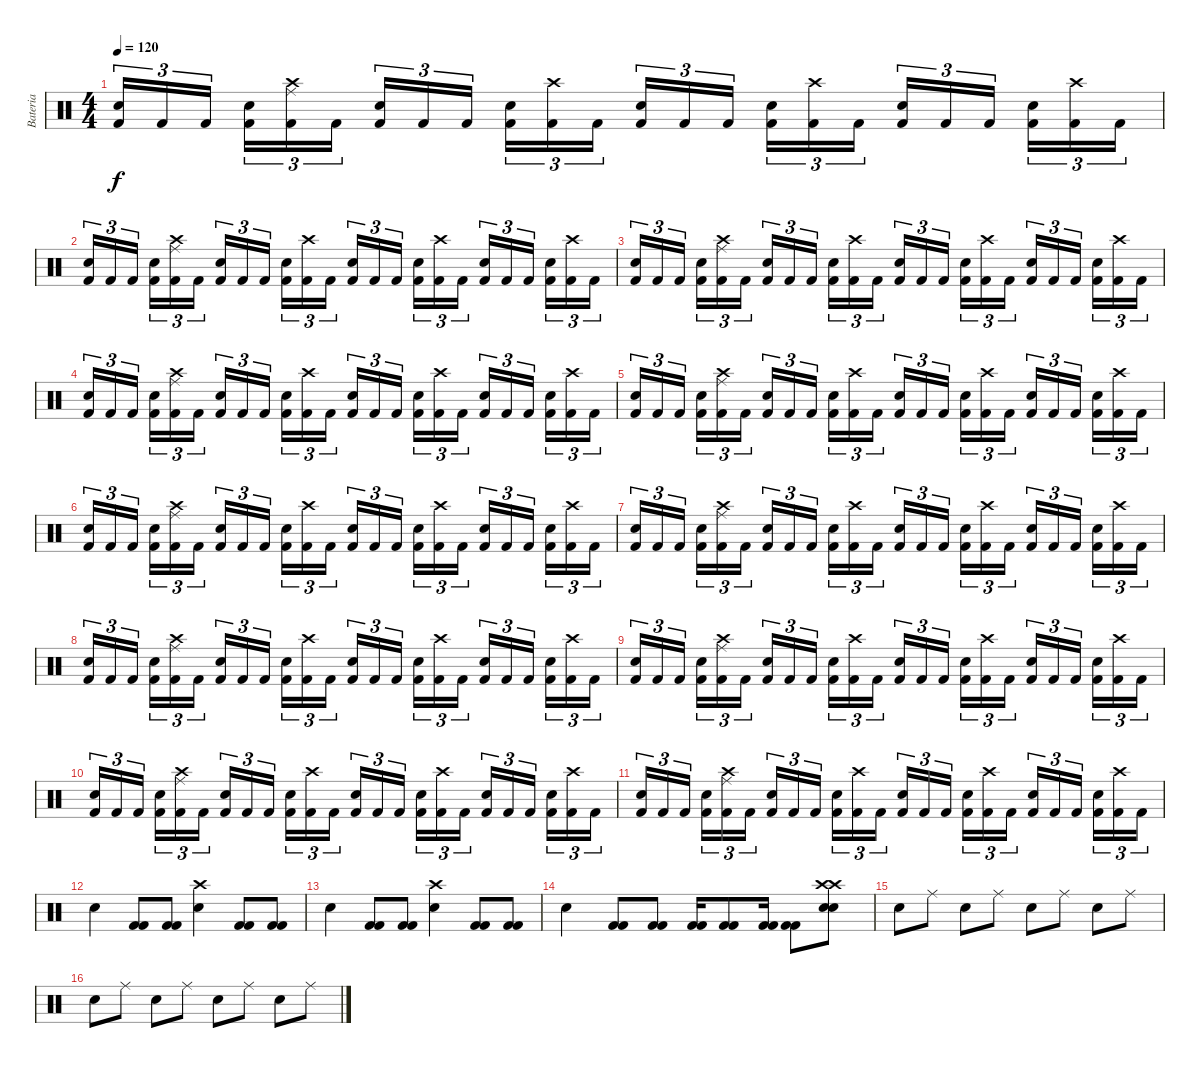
\track ("Bateria" "Bateria") {instrument percussion}
\staff {score}
\articulation defaults
\ts (4 4)
\tempo 120
\clef neutral
\ks c
("Electric Snare (hit)" "Kick (hit) 2").16{tu (3 2) dy f} "Kick (hit) 2".16{tu (3 2)} "Kick (hit) 2".16{tu (3 2)} ("Electric Snare (hit)" "Kick (hit) 2").16{tu (3 2)} ("Ride (middle)" "Kick (hit) 2" "Crash high (hit)").16{tu (3 2)} "Kick (hit) 2".16{tu (3 2)} ("Electric Snare (hit)" "Kick (hit) 2").16{tu (3 2)} "Kick (hit) 2".16{tu (3 2)} "Kick (hit) 2".16{tu (3 2)} ("Electric Snare (hit)" "Kick (hit) 2").16{tu (3 2)} ("Kick (hit) 2" "Crash high (hit)").16{tu (3 2)} "Kick (hit) 2".16{tu (3 2)} ("Electric Snare (hit)" "Kick (hit) 2").16{tu (3 2)} "Kick (hit) 2".16{tu (3 2)} "Kick (hit) 2".16{tu (3 2)} ("Electric Snare (hit)" "Kick (hit) 2").16{tu (3 2)} ("Kick (hit) 2" "Crash high (hit)").16{tu (3 2)} "Kick (hit) 2".16{tu (3 2)} ("Electric Snare (hit)" "Kick (hit) 2").16{tu (3 2)} "Kick (hit) 2".16{tu (3 2)} "Kick (hit) 2".16{tu (3 2)} ("Electric Snare (hit)" "Kick (hit) 2").16{tu (3 2)} ("Kick (hit) 2" "Crash high (hit)").16{tu (3 2)} "Kick (hit) 2".16{tu (3 2)} |
("Electric Snare (hit)" "Kick (hit) 2").16{tu (3 2)} "Kick (hit) 2".16{tu (3 2)} "Kick (hit) 2".16{tu (3 2)} ("Electric Snare (hit)" "Kick (hit) 2").16{tu (3 2)} ("Ride (middle)" "Kick (hit) 2" "Crash high (hit)").16{tu (3 2)} "Kick (hit) 2".16{tu (3 2)} ("Electric Snare (hit)" "Kick (hit) 2").16{tu (3 2)} "Kick (hit) 2".16{tu (3 2)} "Kick (hit) 2".16{tu (3 2)} ("Electric Snare (hit)" "Kick (hit) 2").16{tu (3 2)} ("Kick (hit) 2" "Crash high (hit)").16{tu (3 2)} "Kick (hit) 2".16{tu (3 2)} ("Electric Snare (hit)" "Kick (hit) 2").16{tu (3 2)} "Kick (hit) 2".16{tu (3 2)} "Kick (hit) 2".16{tu (3 2)} ("Electric Snare (hit)" "Kick (hit) 2").16{tu (3 2)} ("Kick (hit) 2" "Crash high (hit)").16{tu (3 2)} "Kick (hit) 2".16{tu (3 2)} ("Electric Snare (hit)" "Kick (hit) 2").16{tu (3 2)} "Kick (hit) 2".16{tu (3 2)} "Kick (hit) 2".16{tu (3 2)} ("Electric Snare (hit)" "Kick (hit) 2").16{tu (3 2)} ("Kick (hit) 2" "Crash high (hit)").16{tu (3 2)} "Kick (hit) 2".16{tu (3 2)} |
("Electric Snare (hit)" "Kick (hit) 2").16{tu (3 2)} "Kick (hit) 2".16{tu (3 2)} "Kick (hit) 2".16{tu (3 2)} ("Electric Snare (hit)" "Kick (hit) 2").16{tu (3 2)} ("Ride (middle)" "Kick (hit) 2" "Crash high (hit)").16{tu (3 2)} "Kick (hit) 2".16{tu (3 2)} ("Electric Snare (hit)" "Kick (hit) 2").16{tu (3 2)} "Kick (hit) 2".16{tu (3 2)} "Kick (hit) 2".16{tu (3 2)} ("Electric Snare (hit)" "Kick (hit) 2").16{tu (3 2)} ("Kick (hit) 2" "Crash high (hit)").16{tu (3 2)} "Kick (hit) 2".16{tu (3 2)} ("Electric Snare (hit)" "Kick (hit) 2").16{tu (3 2)} "Kick (hit) 2".16{tu (3 2)} "Kick (hit) 2".16{tu (3 2)} ("Electric Snare (hit)" "Kick (hit) 2").16{tu (3 2)} ("Kick (hit) 2" "Crash high (hit)").16{tu (3 2)} "Kick (hit) 2".16{tu (3 2)} ("Electric Snare (hit)" "Kick (hit) 2").16{tu (3 2)} "Kick (hit) 2".16{tu (3 2)} "Kick (hit) 2".16{tu (3 2)} ("Electric Snare (hit)" "Kick (hit) 2").16{tu (3 2)} ("Kick (hit) 2" "Crash high (hit)").16{tu (3 2)} "Kick (hit) 2".16{tu (3 2)} |
("Electric Snare (hit)" "Kick (hit) 2").16{tu (3 2)} "Kick (hit) 2".16{tu (3 2)} "Kick (hit) 2".16{tu (3 2)} ("Electric Snare (hit)" "Kick (hit) 2").16{tu (3 2)} ("Ride (middle)" "Kick (hit) 2" "Crash high (hit)").16{tu (3 2)} "Kick (hit) 2".16{tu (3 2)} ("Electric Snare (hit)" "Kick (hit) 2").16{tu (3 2)} "Kick (hit) 2".16{tu (3 2)} "Kick (hit) 2".16{tu (3 2)} ("Electric Snare (hit)" "Kick (hit) 2").16{tu (3 2)} ("Kick (hit) 2" "Crash high (hit)").16{tu (3 2)} "Kick (hit) 2".16{tu (3 2)} ("Electric Snare (hit)" "Kick (hit) 2").16{tu (3 2)} "Kick (hit) 2".16{tu (3 2)} "Kick (hit) 2".16{tu (3 2)} ("Electric Snare (hit)" "Kick (hit) 2").16{tu (3 2)} ("Kick (hit) 2" "Crash high (hit)").16{tu (3 2)} "Kick (hit) 2".16{tu (3 2)} ("Electric Snare (hit)" "Kick (hit) 2").16{tu (3 2)} "Kick (hit) 2".16{tu (3 2)} "Kick (hit) 2".16{tu (3 2)} ("Electric Snare (hit)" "Kick (hit) 2").16{tu (3 2)} ("Kick (hit) 2" "Crash high (hit)").16{tu (3 2)} "Kick (hit) 2".16{tu (3 2)} |
("Electric Snare (hit)" "Kick (hit) 2").16{tu (3 2)} "Kick (hit) 2".16{tu (3 2)} "Kick (hit) 2".16{tu (3 2)} ("Electric Snare (hit)" "Kick (hit) 2").16{tu (3 2)} ("Ride (middle)" "Kick (hit) 2" "Crash high (hit)").16{tu (3 2)} "Kick (hit) 2".16{tu (3 2)} ("Electric Snare (hit)" "Kick (hit) 2").16{tu (3 2)} "Kick (hit) 2".16{tu (3 2)} "Kick (hit) 2".16{tu (3 2)} ("Electric Snare (hit)" "Kick (hit) 2").16{tu (3 2)} ("Kick (hit) 2" "Crash high (hit)").16{tu (3 2)} "Kick (hit) 2".16{tu (3 2)} ("Electric Snare (hit)" "Kick (hit) 2").16{tu (3 2)} "Kick (hit) 2".16{tu (3 2)} "Kick (hit) 2".16{tu (3 2)} ("Electric Snare (hit)" "Kick (hit) 2").16{tu (3 2)} ("Kick (hit) 2" "Crash high (hit)").16{tu (3 2)} "Kick (hit) 2".16{tu (3 2)} ("Electric Snare (hit)" "Kick (hit) 2").16{tu (3 2)} "Kick (hit) 2".16{tu (3 2)} "Kick (hit) 2".16{tu (3 2)} ("Electric Snare (hit)" "Kick (hit) 2").16{tu (3 2)} ("Kick (hit) 2" "Crash high (hit)").16{tu (3 2)} "Kick (hit) 2".16{tu (3 2)} |
("Electric Snare (hit)" "Kick (hit) 2").16{tu (3 2)} "Kick (hit) 2".16{tu (3 2)} "Kick (hit) 2".16{tu (3 2)} ("Electric Snare (hit)" "Kick (hit) 2").16{tu (3 2)} ("Ride (middle)" "Kick (hit) 2" "Crash high (hit)").16{tu (3 2)} "Kick (hit) 2".16{tu (3 2)} ("Electric Snare (hit)" "Kick (hit) 2").16{tu (3 2)} "Kick (hit) 2".16{tu (3 2)} "Kick (hit) 2".16{tu (3 2)} ("Electric Snare (hit)" "Kick (hit) 2").16{tu (3 2)} ("Kick (hit) 2" "Crash high (hit)").16{tu (3 2)} "Kick (hit) 2".16{tu (3 2)} ("Electric Snare (hit)" "Kick (hit) 2").16{tu (3 2)} "Kick (hit) 2".16{tu (3 2)} "Kick (hit) 2".16{tu (3 2)} ("Electric Snare (hit)" "Kick (hit) 2").16{tu (3 2)} ("Kick (hit) 2" "Crash high (hit)").16{tu (3 2)} "Kick (hit) 2".16{tu (3 2)} ("Electric Snare (hit)" "Kick (hit) 2").16{tu (3 2)} "Kick (hit) 2".16{tu (3 2)} "Kick (hit) 2".16{tu (3 2)} ("Electric Snare (hit)" "Kick (hit) 2").16{tu (3 2)} ("Kick (hit) 2" "Crash high (hit)").16{tu (3 2)} "Kick (hit) 2".16{tu (3 2)} |
("Electric Snare (hit)" "Kick (hit) 2").16{tu (3 2)} "Kick (hit) 2".16{tu (3 2)} "Kick (hit) 2".16{tu (3 2)} ("Electric Snare (hit)" "Kick (hit) 2").16{tu (3 2)} ("Ride (middle)" "Kick (hit) 2" "Crash high (hit)").16{tu (3 2)} "Kick (hit) 2".16{tu (3 2)} ("Electric Snare (hit)" "Kick (hit) 2").16{tu (3 2)} "Kick (hit) 2".16{tu (3 2)} "Kick (hit) 2".16{tu (3 2)} ("Electric Snare (hit)" "Kick (hit) 2").16{tu (3 2)} ("Kick (hit) 2" "Crash high (hit)").16{tu (3 2)} "Kick (hit) 2".16{tu (3 2)} ("Electric Snare (hit)" "Kick (hit) 2").16{tu (3 2)} "Kick (hit) 2".16{tu (3 2)} "Kick (hit) 2".16{tu (3 2)} ("Electric Snare (hit)" "Kick (hit) 2").16{tu (3 2)} ("Kick (hit) 2" "Crash high (hit)").16{tu (3 2)} "Kick (hit) 2".16{tu (3 2)} ("Electric Snare (hit)" "Kick (hit) 2").16{tu (3 2)} "Kick (hit) 2".16{tu (3 2)} "Kick (hit) 2".16{tu (3 2)} ("Electric Snare (hit)" "Kick (hit) 2").16{tu (3 2)} ("Kick (hit) 2" "Crash high (hit)").16{tu (3 2)} "Kick (hit) 2".16{tu (3 2)} |
("Electric Snare (hit)" "Kick (hit) 2").16{tu (3 2)} "Kick (hit) 2".16{tu (3 2)} "Kick (hit) 2".16{tu (3 2)} ("Electric Snare (hit)" "Kick (hit) 2").16{tu (3 2)} ("Ride (middle)" "Kick (hit) 2" "Crash high (hit)").16{tu (3 2)} "Kick (hit) 2".16{tu (3 2)} ("Electric Snare (hit)" "Kick (hit) 2").16{tu (3 2)} "Kick (hit) 2".16{tu (3 2)} "Kick (hit) 2".16{tu (3 2)} ("Electric Snare (hit)" "Kick (hit) 2").16{tu (3 2)} ("Kick (hit) 2" "Crash high (hit)").16{tu (3 2)} "Kick (hit) 2".16{tu (3 2)} ("Electric Snare (hit)" "Kick (hit) 2").16{tu (3 2)} "Kick (hit) 2".16{tu (3 2)} "Kick (hit) 2".16{tu (3 2)} ("Electric Snare (hit)" "Kick (hit) 2").16{tu (3 2)} ("Kick (hit) 2" "Crash high (hit)").16{tu (3 2)} "Kick (hit) 2".16{tu (3 2)} ("Electric Snare (hit)" "Kick (hit) 2").16{tu (3 2)} "Kick (hit) 2".16{tu (3 2)} "Kick (hit) 2".16{tu (3 2)} ("Electric Snare (hit)" "Kick (hit) 2").16{tu (3 2)} ("Kick (hit) 2" "Crash high (hit)").16{tu (3 2)} "Kick (hit) 2".16{tu (3 2)} |
("Electric Snare (hit)" "Kick (hit) 2").16{tu (3 2)} "Kick (hit) 2".16{tu (3 2)} "Kick (hit) 2".16{tu (3 2)} ("Electric Snare (hit)" "Kick (hit) 2").16{tu (3 2)} ("Ride (middle)" "Kick (hit) 2" "Crash high (hit)").16{tu (3 2)} "Kick (hit) 2".16{tu (3 2)} ("Electric Snare (hit)" "Kick (hit) 2").16{tu (3 2)} "Kick (hit) 2".16{tu (3 2)} "Kick (hit) 2".16{tu (3 2)} ("Electric Snare (hit)" "Kick (hit) 2").16{tu (3 2)} ("Kick (hit) 2" "Crash high (hit)").16{tu (3 2)} "Kick (hit) 2".16{tu (3 2)} ("Electric Snare (hit)" "Kick (hit) 2").16{tu (3 2)} "Kick (hit) 2".16{tu (3 2)} "Kick (hit) 2".16{tu (3 2)} ("Electric Snare (hit)" "Kick (hit) 2").16{tu (3 2)} ("Kick (hit) 2" "Crash high (hit)").16{tu (3 2)} "Kick (hit) 2".16{tu (3 2)} ("Electric Snare (hit)" "Kick (hit) 2").16{tu (3 2)} "Kick (hit) 2".16{tu (3 2)} "Kick (hit) 2".16{tu (3 2)} ("Electric Snare (hit)" "Kick (hit) 2").16{tu (3 2)} ("Kick (hit) 2" "Crash high (hit)").16{tu (3 2)} "Kick (hit) 2".16{tu (3 2)} |
("Electric Snare (hit)" "Kick (hit) 2").16{tu (3 2)} "Kick (hit) 2".16{tu (3 2)} "Kick (hit) 2".16{tu (3 2)} ("Electric Snare (hit)" "Kick (hit) 2").16{tu (3 2)} ("Ride (middle)" "Kick (hit) 2" "Crash high (hit)").16{tu (3 2)} "Kick (hit) 2".16{tu (3 2)} ("Electric Snare (hit)" "Kick (hit) 2").16{tu (3 2)} "Kick (hit) 2".16{tu (3 2)} "Kick (hit) 2".16{tu (3 2)} ("Electric Snare (hit)" "Kick (hit) 2").16{tu (3 2)} ("Kick (hit) 2" "Crash high (hit)").16{tu (3 2)} "Kick (hit) 2".16{tu (3 2)} ("Electric Snare (hit)" "Kick (hit) 2").16{tu (3 2)} "Kick (hit) 2".16{tu (3 2)} "Kick (hit) 2".16{tu (3 2)} ("Electric Snare (hit)" "Kick (hit) 2").16{tu (3 2)} ("Kick (hit) 2" "Crash high (hit)").16{tu (3 2)} "Kick (hit) 2".16{tu (3 2)} ("Electric Snare (hit)" "Kick (hit) 2").16{tu (3 2)} "Kick (hit) 2".16{tu (3 2)} "Kick (hit) 2".16{tu (3 2)} ("Electric Snare (hit)" "Kick (hit) 2").16{tu (3 2)} ("Kick (hit) 2" "Crash high (hit)").16{tu (3 2)} "Kick (hit) 2".16{tu (3 2)} |
("Electric Snare (hit)" "Kick (hit) 2").16{tu (3 2)} "Kick (hit) 2".16{tu (3 2)} "Kick (hit) 2".16{tu (3 2)} ("Electric Snare (hit)" "Kick (hit) 2").16{tu (3 2)} ("Ride (middle)" "Kick (hit) 2" "Crash high (hit)").16{tu (3 2)} "Kick (hit) 2".16{tu (3 2)} ("Electric Snare (hit)" "Kick (hit) 2").16{tu (3 2)} "Kick (hit) 2".16{tu (3 2)} "Kick (hit) 2".16{tu (3 2)} ("Electric Snare (hit)" "Kick (hit) 2").16{tu (3 2)} ("Kick (hit) 2" "Crash high (hit)").16{tu (3 2)} "Kick (hit) 2".16{tu (3 2)} ("Electric Snare (hit)" "Kick (hit) 2").16{tu (3 2)} "Kick (hit) 2".16{tu (3 2)} "Kick (hit) 2".16{tu (3 2)} ("Electric Snare (hit)" "Kick (hit) 2").16{tu (3 2)} ("Kick (hit) 2" "Crash high (hit)").16{tu (3 2)} "Kick (hit) 2".16{tu (3 2)} ("Electric Snare (hit)" "Kick (hit) 2").16{tu (3 2)} "Kick (hit) 2".16{tu (3 2)} "Kick (hit) 2".16{tu (3 2)} ("Electric Snare (hit)" "Kick (hit) 2").16{tu (3 2)} ("Kick (hit) 2" "Crash high (hit)").16{tu (3 2)} "Kick (hit) 2".16{tu (3 2)} |
"Electric Snare (hit)".4 ("Kick (hit) 2" "Kick (hit) 2").8 ("Kick (hit) 2" "Kick (hit) 2").8 ("Electric Snare (hit)" "Crash high (hit)").4 ("Kick (hit) 2" "Kick (hit) 2").8 ("Kick (hit) 2" "Kick (hit) 2").8 |
"Electric Snare (hit)".4 ("Kick (hit) 2" "Kick (hit) 2").8 ("Kick (hit) 2" "Kick (hit) 2").8 ("Electric Snare (hit)" "Crash high (hit)").4 ("Kick (hit) 2" "Kick (hit) 2").8 ("Kick (hit) 2" "Kick (hit) 2").8 |
"Electric Snare (hit)".4 ("Kick (hit) 2" "Kick (hit) 2").8 ("Kick (hit) 2" "Kick (hit) 2").8 ("Kick (hit) 2" "Kick (hit) 2").16 ("Kick (hit) 2" "Kick (hit) 2").8 ("Kick (hit) 2" "Kick (hit) 2").16 ("Kick (hit) 2" "Kick (hit) 2").8 ("Electric Snare (hit)" "Crash high (hit)" "Crash high (hit)" "Electric Snare (hit)").8 |
"Electric Snare (hit)".8 "Ride (middle)".8 "Electric Snare (hit)".8 "Ride (middle)".8 "Electric Snare (hit)".8 "Ride (middle)".8 "Electric Snare (hit)".8 "Ride (middle)".8 |
"Electric Snare (hit)".8 "Ride (middle)".8 "Electric Snare (hit)".8 "Ride (middle)".8 "Electric Snare (hit)".8 "Ride (middle)".8 "Electric Snare (hit)".8 "Ride (middle)".8
